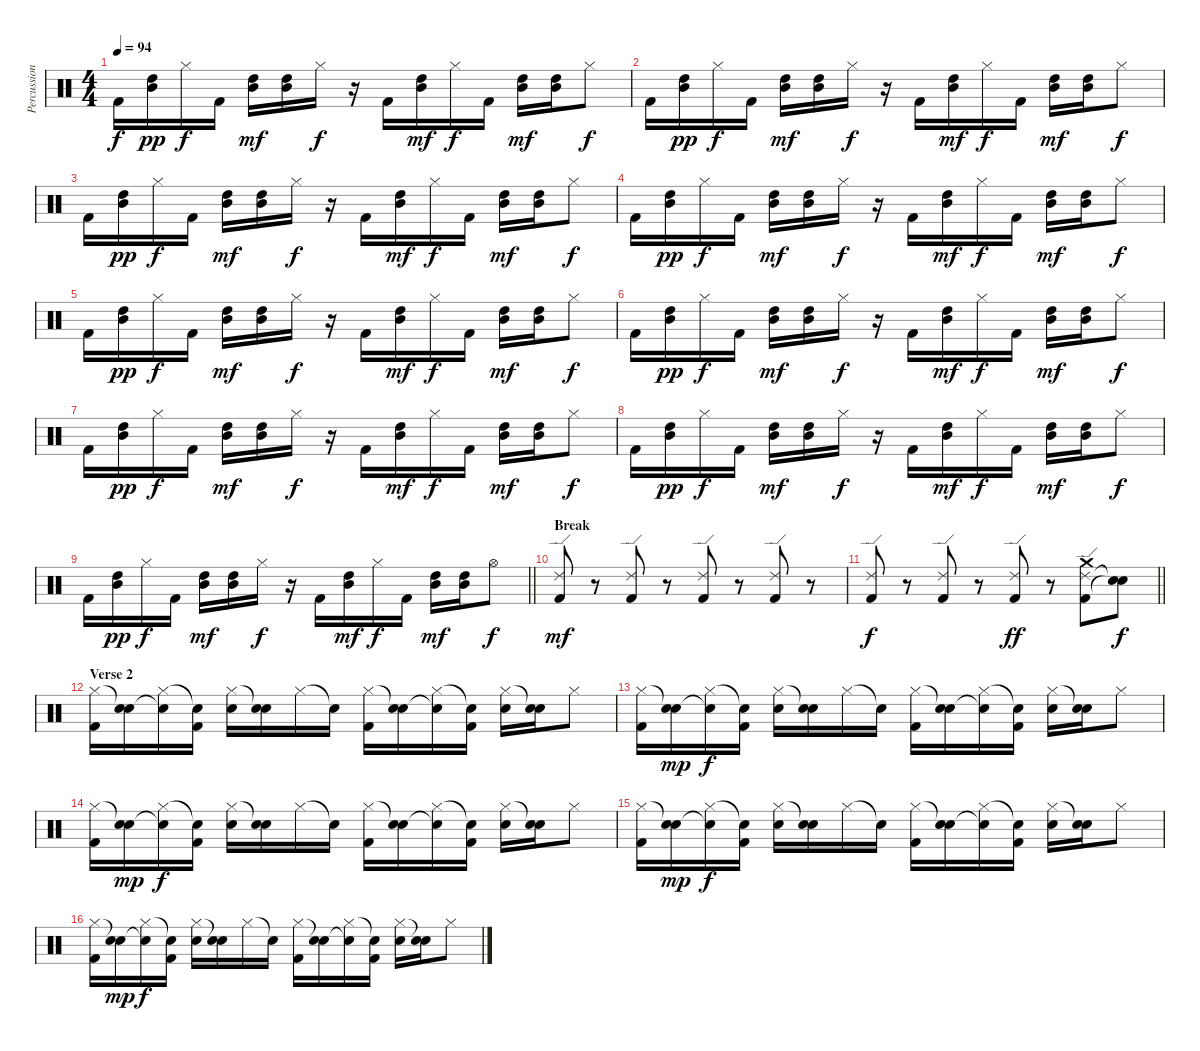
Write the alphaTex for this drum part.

\track ("Percussion" "Percussion") {instrument percussion}
\staff {score}
\articulation defaults
\ts (4 4)
\tempo 94
\clef neutral
\ks c "Kick (hit) 2".16{dy f}
("Mid Tom (hit)" "High Tom (hit)").16{dy pp} "Hi-Hat (closed)".16{dy f} "Kick (hit) 2".16 ("Mid Tom (hit)" "High Tom (hit)").16{dy mf} ("Mid Tom (hit)" "High Tom (hit)").16 "Hi-Hat (closed)".16{dy f} r.16 "Kick (hit) 2".16 ("Mid Tom (hit)" "High Tom (hit)").16{dy mf} "Hi-Hat (closed)".16{dy f} "Kick (hit) 2".16 ("Mid Tom (hit)" "High Tom (hit)").16{dy mf} ("Mid Tom (hit)" "High Tom (hit)").16 "Hi-Hat (closed)".8{dy f} |
"Kick (hit) 2".16 ("Mid Tom (hit)" "High Tom (hit)").16{dy pp} "Hi-Hat (closed)".16{dy f} "Kick (hit) 2".16 ("Mid Tom (hit)" "High Tom (hit)").16{dy mf} ("Mid Tom (hit)" "High Tom (hit)").16 "Hi-Hat (closed)".16{dy f} r.16 "Kick (hit) 2".16 ("Mid Tom (hit)" "High Tom (hit)").16{dy mf} "Hi-Hat (closed)".16{dy f} "Kick (hit) 2".16 ("Mid Tom (hit)" "High Tom (hit)").16{dy mf} ("Mid Tom (hit)" "High Tom (hit)").16 "Hi-Hat (closed)".8{dy f} |
"Kick (hit) 2".16 ("Mid Tom (hit)" "High Tom (hit)").16{dy pp} "Hi-Hat (closed)".16{dy f} "Kick (hit) 2".16 ("Mid Tom (hit)" "High Tom (hit)").16{dy mf} ("Mid Tom (hit)" "High Tom (hit)").16 "Hi-Hat (closed)".16{dy f} r.16 "Kick (hit) 2".16 ("Mid Tom (hit)" "High Tom (hit)").16{dy mf} "Hi-Hat (closed)".16{dy f} "Kick (hit) 2".16 ("Mid Tom (hit)" "High Tom (hit)").16{dy mf} ("Mid Tom (hit)" "High Tom (hit)").16 "Hi-Hat (closed)".8{dy f} |
"Kick (hit) 2".16 ("Mid Tom (hit)" "High Tom (hit)").16{dy pp} "Hi-Hat (closed)".16{dy f} "Kick (hit) 2".16 ("Mid Tom (hit)" "High Tom (hit)").16{dy mf} ("Mid Tom (hit)" "High Tom (hit)").16 "Hi-Hat (closed)".16{dy f} r.16 "Kick (hit) 2".16 ("Mid Tom (hit)" "High Tom (hit)").16{dy mf} "Hi-Hat (closed)".16{dy f} "Kick (hit) 2".16 ("Mid Tom (hit)" "High Tom (hit)").16{dy mf} ("Mid Tom (hit)" "High Tom (hit)").16 "Hi-Hat (closed)".8{dy f} |
"Kick (hit) 2".16 ("Mid Tom (hit)" "High Tom (hit)").16{dy pp} "Hi-Hat (closed)".16{dy f} "Kick (hit) 2".16 ("Mid Tom (hit)" "High Tom (hit)").16{dy mf} ("Mid Tom (hit)" "High Tom (hit)").16 "Hi-Hat (closed)".16{dy f} r.16 "Kick (hit) 2".16 ("Mid Tom (hit)" "High Tom (hit)").16{dy mf} "Hi-Hat (closed)".16{dy f} "Kick (hit) 2".16 ("Mid Tom (hit)" "High Tom (hit)").16{dy mf} ("Mid Tom (hit)" "High Tom (hit)").16 "Hi-Hat (closed)".8{dy f} |
"Kick (hit) 2".16 ("Mid Tom (hit)" "High Tom (hit)").16{dy pp} "Hi-Hat (closed)".16{dy f} "Kick (hit) 2".16 ("Mid Tom (hit)" "High Tom (hit)").16{dy mf} ("Mid Tom (hit)" "High Tom (hit)").16 "Hi-Hat (closed)".16{dy f} r.16 "Kick (hit) 2".16 ("Mid Tom (hit)" "High Tom (hit)").16{dy mf} "Hi-Hat (closed)".16{dy f} "Kick (hit) 2".16 ("Mid Tom (hit)" "High Tom (hit)").16{dy mf} ("Mid Tom (hit)" "High Tom (hit)").16 "Hi-Hat (closed)".8{dy f} |
"Kick (hit) 2".16 ("Mid Tom (hit)" "High Tom (hit)").16{dy pp} "Hi-Hat (closed)".16{dy f} "Kick (hit) 2".16 ("Mid Tom (hit)" "High Tom (hit)").16{dy mf} ("Mid Tom (hit)" "High Tom (hit)").16 "Hi-Hat (closed)".16{dy f} r.16 "Kick (hit) 2".16 ("Mid Tom (hit)" "High Tom (hit)").16{dy mf} "Hi-Hat (closed)".16{dy f} "Kick (hit) 2".16 ("Mid Tom (hit)" "High Tom (hit)").16{dy mf} ("Mid Tom (hit)" "High Tom (hit)").16 "Hi-Hat (closed)".8{dy f} |
"Kick (hit) 2".16 ("Mid Tom (hit)" "High Tom (hit)").16{dy pp} "Hi-Hat (closed)".16{dy f} "Kick (hit) 2".16 ("Mid Tom (hit)" "High Tom (hit)").16{dy mf} ("Mid Tom (hit)" "High Tom (hit)").16 "Hi-Hat (closed)".16{dy f} r.16 "Kick (hit) 2".16 ("Mid Tom (hit)" "High Tom (hit)").16{dy mf} "Hi-Hat (closed)".16{dy f} "Kick (hit) 2".16 ("Mid Tom (hit)" "High Tom (hit)").16{dy mf} ("Mid Tom (hit)" "High Tom (hit)").16 "Hi-Hat (closed)".8{dy f} |
\barLineRight lightlight "Kick (hit) 2".16
("Mid Tom (hit)" "High Tom (hit)").16{dy pp} "Hi-Hat (closed)".16{dy f} "Kick (hit) 2".16 ("Mid Tom (hit)" "High Tom (hit)").16{dy mf} ("Mid Tom (hit)" "High Tom (hit)").16 "Hi-Hat (closed)".16{dy f} r.16 "Kick (hit) 2".16 ("Mid Tom (hit)" "High Tom (hit)").16{dy mf} "Hi-Hat (closed)".16{dy f} "Kick (hit) 2".16 ("Mid Tom (hit)" "High Tom (hit)").16{dy mf} ("Mid Tom (hit)" "High Tom (hit)").16 "Hi-Hat (open)".8{dy f} |
\section ("" "Break")
("Kick (hit) 2" "Ride (edge) 2").8{dy mf} r.8 ("Kick (hit) 2" "Ride (edge) 2").8 r.8 ("Kick (hit) 2" "Ride (edge) 2").8 r.8 ("Kick (hit) 2" "Ride (edge) 2").8 r.8 |
\barLineRight lightlight
("Kick (hit) 2" "Ride (edge) 2").8{dy f} r.8 ("Kick (hit) 2" "Ride (edge) 2").8 r.8 ("Kick (hit) 2" "Ride (edge) 2").8{dy ff} r.8 ("Kick (hit) 2" "Ride (edge) 2" "Crash medium (hit)").8 ("Snare (hit)"{t} "Snare (hit)"{t}).8{dy f} |
\section ("" "Verse 2")
("Kick (hit) 2" "Hi-Hat (closed)").16 ("Electric Snare (hit)" "Snare (hit)"{t}).16 ("Electric Snare (hit)"{t} "Hi-Hat (closed)").16 ("Kick (hit) 2" "Snare (hit)"{t}).16 ("Electric Snare (hit)" "Hi-Hat (closed)").16 ("Electric Snare (hit)" "Snare (hit)"{t}).16 "Hi-Hat (closed)".16 "Snare (hit)"{t}.16 ("Kick (hit) 2" "Hi-Hat (closed)").16 ("Electric Snare (hit)" "Snare (hit)"{t}).16 ("Electric Snare (hit)"{t} "Hi-Hat (closed)").16 ("Kick (hit) 2" "Snare (hit)"{t}).16 ("Electric Snare (hit)" "Hi-Hat (closed)").16 ("Electric Snare (hit)" "Snare (hit)"{t}).16 "Hi-Hat (closed)".8 |
("Kick (hit) 2" "Hi-Hat (closed)").16 ("Electric Snare (hit)" "Snare (hit)"{t}).16{dy mp} ("Electric Snare (hit)"{t} "Hi-Hat (closed)").16{dy f} ("Kick (hit) 2" "Snare (hit)"{t}).16 ("Electric Snare (hit)" "Hi-Hat (closed)").16 ("Electric Snare (hit)" "Snare (hit)"{t}).16 "Hi-Hat (closed)".16 "Snare (hit)"{t}.16 ("Kick (hit) 2" "Hi-Hat (closed)").16 ("Electric Snare (hit)" "Snare (hit)"{t}).16 ("Electric Snare (hit)"{t} "Hi-Hat (closed)").16 ("Kick (hit) 2" "Snare (hit)"{t}).16 ("Electric Snare (hit)" "Hi-Hat (closed)").16 ("Electric Snare (hit)" "Snare (hit)"{t}).16 "Hi-Hat (closed)".8 |
("Kick (hit) 2" "Hi-Hat (closed)").16 ("Electric Snare (hit)" "Snare (hit)"{t}).16{dy mp} ("Electric Snare (hit)"{t} "Hi-Hat (closed)").16{dy f} ("Kick (hit) 2" "Snare (hit)"{t}).16 ("Electric Snare (hit)" "Hi-Hat (closed)").16 ("Electric Snare (hit)" "Snare (hit)"{t}).16 "Hi-Hat (closed)".16 "Snare (hit)"{t}.16 ("Kick (hit) 2" "Hi-Hat (closed)").16 ("Electric Snare (hit)" "Snare (hit)"{t}).16 ("Electric Snare (hit)"{t} "Hi-Hat (closed)").16 ("Kick (hit) 2" "Snare (hit)"{t}).16 ("Electric Snare (hit)" "Hi-Hat (closed)").16 ("Electric Snare (hit)" "Snare (hit)"{t}).16 "Hi-Hat (closed)".8 |
("Kick (hit) 2" "Hi-Hat (closed)").16 ("Electric Snare (hit)" "Snare (hit)"{t}).16{dy mp} ("Electric Snare (hit)"{t} "Hi-Hat (closed)").16{dy f} ("Kick (hit) 2" "Snare (hit)"{t}).16 ("Electric Snare (hit)" "Hi-Hat (closed)").16 ("Electric Snare (hit)" "Snare (hit)"{t}).16 "Hi-Hat (closed)".16 "Snare (hit)"{t}.16 ("Kick (hit) 2" "Hi-Hat (closed)").16 ("Electric Snare (hit)" "Snare (hit)"{t}).16 ("Electric Snare (hit)"{t} "Hi-Hat (closed)").16 ("Kick (hit) 2" "Snare (hit)"{t}).16 ("Electric Snare (hit)" "Hi-Hat (closed)").16 ("Electric Snare (hit)" "Snare (hit)"{t}).16 "Hi-Hat (closed)".8 |
("Kick (hit) 2" "Hi-Hat (closed)").16 ("Electric Snare (hit)" "Snare (hit)"{t}).16{dy mp} ("Electric Snare (hit)"{t} "Hi-Hat (closed)").16{dy f} ("Kick (hit) 2" "Snare (hit)"{t}).16 ("Electric Snare (hit)" "Hi-Hat (closed)").16 ("Electric Snare (hit)" "Snare (hit)"{t}).16 "Hi-Hat (closed)".16 "Snare (hit)"{t}.16 ("Kick (hit) 2" "Hi-Hat (closed)").16 ("Electric Snare (hit)" "Snare (hit)"{t}).16 ("Electric Snare (hit)"{t} "Hi-Hat (closed)").16 ("Kick (hit) 2" "Snare (hit)"{t}).16 ("Electric Snare (hit)" "Hi-Hat (closed)").16 ("Electric Snare (hit)" "Snare (hit)"{t}).16 "Hi-Hat (closed)".8
